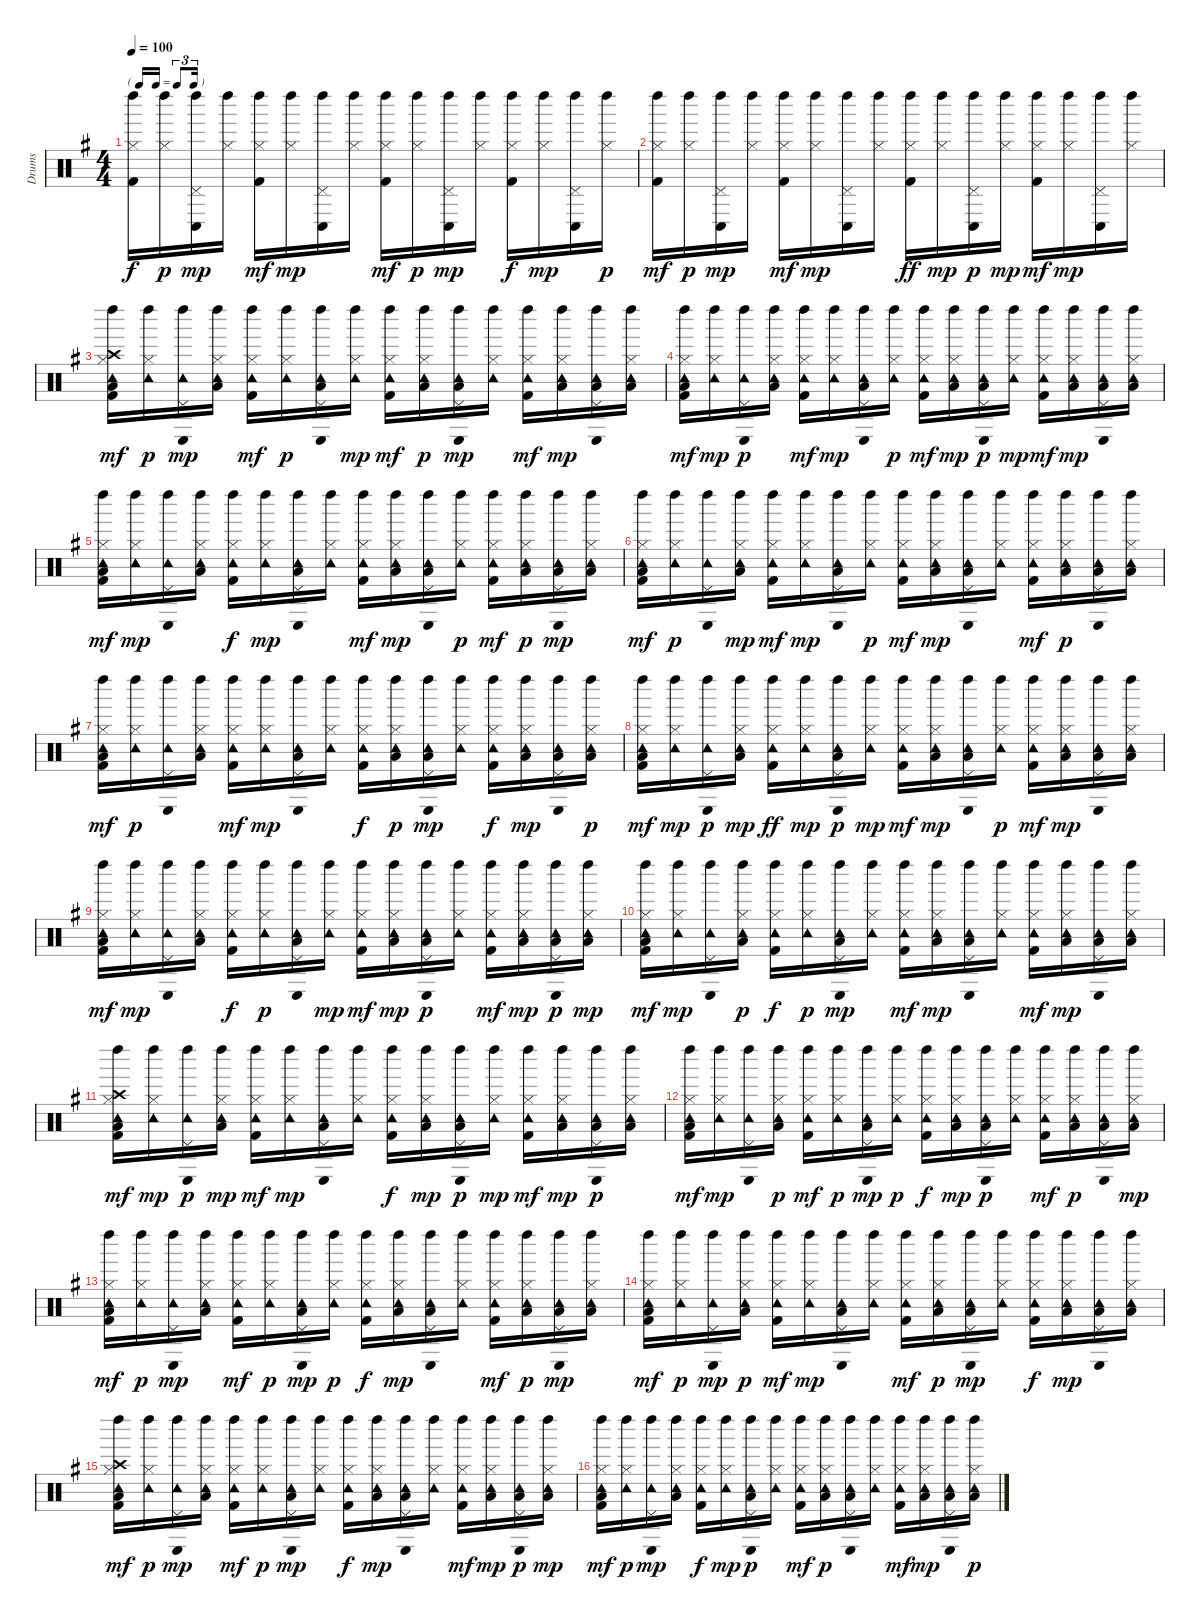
\track ("Drums" "Drums") {instrument percussion}
\staff {score}
\articulation defaults
\ts (4 4)
\tf triplet16th
\tempo 100
\clef neutral
\ks g
("Kick (hit) 2" "Hi-Hat (closed)" "Left Maraca (hit)").16{dy f} ("Hi-Hat (closed)" "Left Maraca (hit)").16{dy p} ("Pedal Hi-Hat (hit)" "Conga low (hit)" "Left Maraca (hit)").16{dy mp} ("Hi-Hat (closed)" "Left Maraca (hit)").16 ("Kick (hit) 2" "Hi-Hat (closed)" "Left Maraca (hit)").16{dy mf} ("Hi-Hat (closed)" "Left Maraca (hit)").16{dy mp} ("Pedal Hi-Hat (hit)" "Conga low (hit)" "Left Maraca (hit)").16 ("Hi-Hat (closed)" "Left Maraca (hit)").16 ("Kick (hit) 2" "Hi-Hat (closed)" "Left Maraca (hit)").16{dy mf} ("Hi-Hat (closed)" "Left Maraca (hit)").16{dy p} ("Pedal Hi-Hat (hit)" "Conga low (hit)" "Left Maraca (hit)").16{dy mp} ("Hi-Hat (closed)" "Left Maraca (hit)").16 ("Kick (hit) 2" "Hi-Hat (closed)" "Left Maraca (hit)").16{dy f} ("Hi-Hat (closed)" "Left Maraca (hit)").16{dy mp} ("Pedal Hi-Hat (hit)" "Conga low (hit)" "Left Maraca (hit)").16 ("Hi-Hat (closed)" "Left Maraca (hit)").16{dy p} |
("Kick (hit) 2" "Hi-Hat (closed)" "Left Maraca (hit)").16{dy mf} ("Hi-Hat (closed)" "Left Maraca (hit)").16{dy p} ("Pedal Hi-Hat (hit)" "Conga low (hit)" "Left Maraca (hit)").16{dy mp} ("Hi-Hat (closed)" "Left Maraca (hit)").16 ("Kick (hit) 2" "Hi-Hat (closed)" "Left Maraca (hit)").16{dy mf} ("Hi-Hat (closed)" "Left Maraca (hit)").16{dy mp} ("Pedal Hi-Hat (hit)" "Conga low (hit)" "Left Maraca (hit)").16 ("Hi-Hat (closed)" "Left Maraca (hit)").16 ("Kick (hit) 2" "Hi-Hat (closed)" "Left Maraca (hit)").16{dy ff} ("Hi-Hat (closed)" "Left Maraca (hit)").16{dy mp} ("Pedal Hi-Hat (hit)" "Conga low (hit)" "Left Maraca (hit)").16{dy p} ("Hi-Hat (closed)" "Left Maraca (hit)").16{dy mp} ("Kick (hit) 2" "Hi-Hat (closed)" "Left Maraca (hit)").16{dy mf} ("Hi-Hat (closed)" "Left Maraca (hit)").16{dy mp} ("Pedal Hi-Hat (hit)" "Conga low (hit)" "Left Maraca (hit)").16 ("Hi-Hat (closed)" "Left Maraca (hit)").16 |
("Kick (hit) 2" "Low Floor Tom (hit)" "Hi-Hat (closed)" "Crash high (hit)" "Tambourine (hit)" "Left Maraca (hit)").16{dy mf} ("Hi-Hat (closed)" "Tambourine (hit)" "Left Maraca (hit)").16{dy p} ("Pedal Hi-Hat (hit)" "Tambourine (hit)" "Conga low (hit)" "Left Maraca (hit)").16{dy mp} ("Low Floor Tom (hit)" "Hi-Hat (closed)" "Tambourine (hit)" "Left Maraca (hit)").16 ("Kick (hit) 2" "Hi-Hat (closed)" "Tambourine (hit)" "Left Maraca (hit)").16{dy mf} ("Hi-Hat (closed)" "Tambourine (hit)" "Left Maraca (hit)").16{dy p} ("Low Floor Tom (hit)" "Pedal Hi-Hat (hit)" "Tambourine (hit)" "Conga low (hit)" "Left Maraca (hit)").16 ("Hi-Hat (closed)" "Tambourine (hit)" "Left Maraca (hit)").16{dy mp} ("Kick (hit) 2" "Hi-Hat (closed)" "Tambourine (hit)" "Left Maraca (hit)").16{dy mf} ("Low Floor Tom (hit)" "Hi-Hat (closed)" "Tambourine (hit)" "Left Maraca (hit)").16{dy p} ("Low Floor Tom (hit)" "Pedal Hi-Hat (hit)" "Tambourine (hit)" "Conga low (hit)" "Left Maraca (hit)").16{dy mp} ("Hi-Hat (closed)" "Tambourine (hit)" "Left Maraca (hit)").16 ("Kick (hit) 2" "Hi-Hat (closed)" "Tambourine (hit)" "Left Maraca (hit)").16{dy mf} ("Low Floor Tom (hit)" "Hi-Hat (closed)" "Tambourine (hit)" "Left Maraca (hit)").16{dy mp} ("Low Floor Tom (hit)" "Pedal Hi-Hat (hit)" "Tambourine (hit)" "Conga low (hit)" "Left Maraca (hit)").16 ("Low Floor Tom (hit)" "Hi-Hat (closed)" "Tambourine (hit)" "Left Maraca (hit)").16 |
("Kick (hit) 2" "Low Floor Tom (hit)" "Hi-Hat (closed)" "Tambourine (hit)" "Left Maraca (hit)").16{dy mf} ("Hi-Hat (closed)" "Tambourine (hit)" "Left Maraca (hit)").16{dy mp} ("Pedal Hi-Hat (hit)" "Tambourine (hit)" "Conga low (hit)" "Left Maraca (hit)").16{dy p} ("Low Floor Tom (hit)" "Hi-Hat (closed)" "Tambourine (hit)" "Left Maraca (hit)").16 ("Kick (hit) 2" "Hi-Hat (closed)" "Tambourine (hit)" "Left Maraca (hit)").16{dy mf} ("Hi-Hat (closed)" "Tambourine (hit)" "Left Maraca (hit)").16{dy mp} ("Low Floor Tom (hit)" "Pedal Hi-Hat (hit)" "Tambourine (hit)" "Conga low (hit)" "Left Maraca (hit)").16 ("Hi-Hat (closed)" "Tambourine (hit)" "Left Maraca (hit)").16{dy p} ("Kick (hit) 2" "Hi-Hat (closed)" "Tambourine (hit)" "Left Maraca (hit)").16{dy mf} ("Low Floor Tom (hit)" "Hi-Hat (closed)" "Tambourine (hit)" "Left Maraca (hit)").16{dy mp} ("Low Floor Tom (hit)" "Pedal Hi-Hat (hit)" "Tambourine (hit)" "Conga low (hit)" "Left Maraca (hit)").16{dy p} ("Hi-Hat (closed)" "Tambourine (hit)" "Left Maraca (hit)").16{dy mp} ("Kick (hit) 2" "Hi-Hat (closed)" "Tambourine (hit)" "Left Maraca (hit)").16{dy mf} ("Low Floor Tom (hit)" "Hi-Hat (closed)" "Tambourine (hit)" "Left Maraca (hit)").16{dy mp} ("Low Floor Tom (hit)" "Pedal Hi-Hat (hit)" "Tambourine (hit)" "Conga low (hit)" "Left Maraca (hit)").16 ("Low Floor Tom (hit)" "Hi-Hat (closed)" "Tambourine (hit)" "Left Maraca (hit)").16 |
("Kick (hit) 2" "Low Floor Tom (hit)" "Hi-Hat (closed)" "Tambourine (hit)" "Left Maraca (hit)").16{dy mf} ("Hi-Hat (closed)" "Tambourine (hit)" "Left Maraca (hit)").16{dy mp} ("Pedal Hi-Hat (hit)" "Tambourine (hit)" "Conga low (hit)" "Left Maraca (hit)").16 ("Low Floor Tom (hit)" "Hi-Hat (closed)" "Tambourine (hit)" "Left Maraca (hit)").16 ("Kick (hit) 2" "Hi-Hat (closed)" "Tambourine (hit)" "Left Maraca (hit)").16{dy f} ("Hi-Hat (closed)" "Tambourine (hit)" "Left Maraca (hit)").16{dy mp} ("Low Floor Tom (hit)" "Pedal Hi-Hat (hit)" "Tambourine (hit)" "Conga low (hit)" "Left Maraca (hit)").16 ("Hi-Hat (closed)" "Tambourine (hit)" "Left Maraca (hit)").16 ("Kick (hit) 2" "Hi-Hat (closed)" "Tambourine (hit)" "Left Maraca (hit)").16{dy mf} ("Low Floor Tom (hit)" "Hi-Hat (closed)" "Tambourine (hit)" "Left Maraca (hit)").16{dy mp} ("Low Floor Tom (hit)" "Pedal Hi-Hat (hit)" "Tambourine (hit)" "Conga low (hit)" "Left Maraca (hit)").16 ("Hi-Hat (closed)" "Tambourine (hit)" "Left Maraca (hit)").16{dy p} ("Kick (hit) 2" "Hi-Hat (closed)" "Tambourine (hit)" "Left Maraca (hit)").16{dy mf} ("Low Floor Tom (hit)" "Hi-Hat (closed)" "Tambourine (hit)" "Left Maraca (hit)").16{dy p} ("Low Floor Tom (hit)" "Pedal Hi-Hat (hit)" "Tambourine (hit)" "Conga low (hit)" "Left Maraca (hit)").16{dy mp} ("Low Floor Tom (hit)" "Hi-Hat (closed)" "Tambourine (hit)" "Left Maraca (hit)").16 |
("Kick (hit) 2" "Low Floor Tom (hit)" "Hi-Hat (closed)" "Tambourine (hit)" "Left Maraca (hit)").16{dy mf} ("Hi-Hat (closed)" "Tambourine (hit)" "Left Maraca (hit)").16{dy p} ("Pedal Hi-Hat (hit)" "Tambourine (hit)" "Conga low (hit)" "Left Maraca (hit)").16 ("Low Floor Tom (hit)" "Hi-Hat (closed)" "Tambourine (hit)" "Left Maraca (hit)").16{dy mp} ("Kick (hit) 2" "Hi-Hat (closed)" "Tambourine (hit)" "Left Maraca (hit)").16{dy mf} ("Hi-Hat (closed)" "Tambourine (hit)" "Left Maraca (hit)").16{dy mp} ("Low Floor Tom (hit)" "Pedal Hi-Hat (hit)" "Tambourine (hit)" "Conga low (hit)" "Left Maraca (hit)").16 ("Hi-Hat (closed)" "Tambourine (hit)" "Left Maraca (hit)").16{dy p} ("Kick (hit) 2" "Hi-Hat (closed)" "Tambourine (hit)" "Left Maraca (hit)").16{dy mf} ("Low Floor Tom (hit)" "Hi-Hat (closed)" "Tambourine (hit)" "Left Maraca (hit)").16{dy mp} ("Low Floor Tom (hit)" "Pedal Hi-Hat (hit)" "Tambourine (hit)" "Conga low (hit)" "Left Maraca (hit)").16 ("Hi-Hat (closed)" "Tambourine (hit)" "Left Maraca (hit)").16 ("Kick (hit) 2" "Hi-Hat (closed)" "Tambourine (hit)" "Left Maraca (hit)").16{dy mf} ("Low Floor Tom (hit)" "Hi-Hat (closed)" "Tambourine (hit)" "Left Maraca (hit)").16{dy p} ("Low Floor Tom (hit)" "Pedal Hi-Hat (hit)" "Tambourine (hit)" "Conga low (hit)" "Left Maraca (hit)").16 ("Low Floor Tom (hit)" "Hi-Hat (closed)" "Tambourine (hit)" "Left Maraca (hit)").16 |
("Kick (hit) 2" "Low Floor Tom (hit)" "Hi-Hat (closed)" "Tambourine (hit)" "Left Maraca (hit)").16{dy mf} ("Hi-Hat (closed)" "Tambourine (hit)" "Left Maraca (hit)").16{dy p} ("Pedal Hi-Hat (hit)" "Tambourine (hit)" "Conga low (hit)" "Left Maraca (hit)").16 ("Low Floor Tom (hit)" "Hi-Hat (closed)" "Tambourine (hit)" "Left Maraca (hit)").16 ("Kick (hit) 2" "Hi-Hat (closed)" "Tambourine (hit)" "Left Maraca (hit)").16{dy mf} ("Hi-Hat (closed)" "Tambourine (hit)" "Left Maraca (hit)").16{dy mp} ("Low Floor Tom (hit)" "Pedal Hi-Hat (hit)" "Tambourine (hit)" "Conga low (hit)" "Left Maraca (hit)").16 ("Hi-Hat (closed)" "Tambourine (hit)" "Left Maraca (hit)").16 ("Kick (hit) 2" "Hi-Hat (closed)" "Tambourine (hit)" "Left Maraca (hit)").16{dy f} ("Low Floor Tom (hit)" "Hi-Hat (closed)" "Tambourine (hit)" "Left Maraca (hit)").16{dy p} ("Low Floor Tom (hit)" "Pedal Hi-Hat (hit)" "Tambourine (hit)" "Conga low (hit)" "Left Maraca (hit)").16{dy mp} ("Hi-Hat (closed)" "Tambourine (hit)" "Left Maraca (hit)").16 ("Kick (hit) 2" "Hi-Hat (closed)" "Tambourine (hit)" "Left Maraca (hit)").16{dy f} ("Low Floor Tom (hit)" "Hi-Hat (closed)" "Tambourine (hit)" "Left Maraca (hit)").16{dy mp} ("Low Floor Tom (hit)" "Pedal Hi-Hat (hit)" "Tambourine (hit)" "Conga low (hit)" "Left Maraca (hit)").16 ("Low Floor Tom (hit)" "Hi-Hat (closed)" "Tambourine (hit)" "Left Maraca (hit)").16{dy p} |
("Kick (hit) 2" "Low Floor Tom (hit)" "Hi-Hat (closed)" "Tambourine (hit)" "Left Maraca (hit)").16{dy mf} ("Hi-Hat (closed)" "Tambourine (hit)" "Left Maraca (hit)").16{dy mp} ("Pedal Hi-Hat (hit)" "Tambourine (hit)" "Conga low (hit)" "Left Maraca (hit)").16{dy p} ("Low Floor Tom (hit)" "Hi-Hat (closed)" "Tambourine (hit)" "Left Maraca (hit)").16{dy mp} ("Kick (hit) 2" "Hi-Hat (closed)" "Tambourine (hit)" "Left Maraca (hit)").16{dy ff} ("Hi-Hat (closed)" "Tambourine (hit)" "Left Maraca (hit)").16{dy mp} ("Low Floor Tom (hit)" "Pedal Hi-Hat (hit)" "Tambourine (hit)" "Conga low (hit)" "Left Maraca (hit)").16{dy p} ("Hi-Hat (closed)" "Tambourine (hit)" "Left Maraca (hit)").16{dy mp} ("Kick (hit) 2" "Hi-Hat (closed)" "Tambourine (hit)" "Left Maraca (hit)").16{dy mf} ("Low Floor Tom (hit)" "Hi-Hat (closed)" "Tambourine (hit)" "Left Maraca (hit)").16{dy mp} ("Low Floor Tom (hit)" "Pedal Hi-Hat (hit)" "Tambourine (hit)" "Conga low (hit)" "Left Maraca (hit)").16 ("Hi-Hat (closed)" "Tambourine (hit)" "Left Maraca (hit)").16{dy p} ("Kick (hit) 2" "Hi-Hat (closed)" "Tambourine (hit)" "Left Maraca (hit)").16{dy mf} ("Low Floor Tom (hit)" "Hi-Hat (closed)" "Tambourine (hit)" "Left Maraca (hit)").16{dy mp} ("Low Floor Tom (hit)" "Pedal Hi-Hat (hit)" "Tambourine (hit)" "Conga low (hit)" "Left Maraca (hit)").16 ("Low Floor Tom (hit)" "Hi-Hat (closed)" "Tambourine (hit)" "Left Maraca (hit)").16 |
("Kick (hit) 2" "Low Floor Tom (hit)" "Hi-Hat (closed)" "Tambourine (hit)" "Left Maraca (hit)").16{dy mf} ("Hi-Hat (closed)" "Tambourine (hit)" "Left Maraca (hit)").16{dy mp} ("Pedal Hi-Hat (hit)" "Tambourine (hit)" "Conga low (hit)" "Left Maraca (hit)").16 ("Low Floor Tom (hit)" "Hi-Hat (closed)" "Tambourine (hit)" "Left Maraca (hit)").16 ("Kick (hit) 2" "Hi-Hat (closed)" "Tambourine (hit)" "Left Maraca (hit)").16{dy f} ("Hi-Hat (closed)" "Tambourine (hit)" "Left Maraca (hit)").16{dy p} ("Low Floor Tom (hit)" "Pedal Hi-Hat (hit)" "Tambourine (hit)" "Conga low (hit)" "Left Maraca (hit)").16 ("Hi-Hat (closed)" "Tambourine (hit)" "Left Maraca (hit)").16{dy mp} ("Kick (hit) 2" "Hi-Hat (closed)" "Tambourine (hit)" "Left Maraca (hit)").16{dy mf} ("Low Floor Tom (hit)" "Hi-Hat (closed)" "Tambourine (hit)" "Left Maraca (hit)").16{dy mp} ("Low Floor Tom (hit)" "Pedal Hi-Hat (hit)" "Tambourine (hit)" "Conga low (hit)" "Left Maraca (hit)").16{dy p} ("Hi-Hat (closed)" "Tambourine (hit)" "Left Maraca (hit)").16 ("Kick (hit) 2" "Hi-Hat (closed)" "Tambourine (hit)" "Left Maraca (hit)").16{dy mf} ("Low Floor Tom (hit)" "Hi-Hat (closed)" "Tambourine (hit)" "Left Maraca (hit)").16{dy mp} ("Low Floor Tom (hit)" "Pedal Hi-Hat (hit)" "Tambourine (hit)" "Conga low (hit)" "Left Maraca (hit)").16{dy p} ("Low Floor Tom (hit)" "Hi-Hat (closed)" "Tambourine (hit)" "Left Maraca (hit)").16{dy mp} |
("Kick (hit) 2" "Low Floor Tom (hit)" "Hi-Hat (closed)" "Tambourine (hit)" "Left Maraca (hit)").16{dy mf} ("Hi-Hat (closed)" "Tambourine (hit)" "Left Maraca (hit)").16{dy mp} ("Pedal Hi-Hat (hit)" "Tambourine (hit)" "Conga low (hit)" "Left Maraca (hit)").16 ("Low Floor Tom (hit)" "Hi-Hat (closed)" "Tambourine (hit)" "Left Maraca (hit)").16{dy p} ("Kick (hit) 2" "Hi-Hat (closed)" "Tambourine (hit)" "Left Maraca (hit)").16{dy f} ("Hi-Hat (closed)" "Tambourine (hit)" "Left Maraca (hit)").16{dy p} ("Low Floor Tom (hit)" "Pedal Hi-Hat (hit)" "Tambourine (hit)" "Conga low (hit)" "Left Maraca (hit)").16{dy mp} ("Hi-Hat (closed)" "Tambourine (hit)" "Left Maraca (hit)").16 ("Kick (hit) 2" "Hi-Hat (closed)" "Tambourine (hit)" "Left Maraca (hit)").16{dy mf} ("Low Floor Tom (hit)" "Hi-Hat (closed)" "Tambourine (hit)" "Left Maraca (hit)").16{dy mp} ("Low Floor Tom (hit)" "Pedal Hi-Hat (hit)" "Tambourine (hit)" "Conga low (hit)" "Left Maraca (hit)").16 ("Hi-Hat (closed)" "Tambourine (hit)" "Left Maraca (hit)").16 ("Kick (hit) 2" "Hi-Hat (closed)" "Tambourine (hit)" "Left Maraca (hit)").16{dy mf} ("Low Floor Tom (hit)" "Hi-Hat (closed)" "Tambourine (hit)" "Left Maraca (hit)").16{dy mp} ("Low Floor Tom (hit)" "Pedal Hi-Hat (hit)" "Tambourine (hit)" "Conga low (hit)" "Left Maraca (hit)").16 ("Low Floor Tom (hit)" "Hi-Hat (closed)" "Tambourine (hit)" "Left Maraca (hit)").16 |
("Kick (hit) 2" "Low Floor Tom (hit)" "Hi-Hat (closed)" "Crash high (hit)" "Tambourine (hit)" "Left Maraca (hit)").16{dy mf} ("Hi-Hat (closed)" "Tambourine (hit)" "Left Maraca (hit)").16{dy mp} ("Pedal Hi-Hat (hit)" "Tambourine (hit)" "Conga low (hit)" "Left Maraca (hit)").16{dy p} ("Low Floor Tom (hit)" "Hi-Hat (closed)" "Tambourine (hit)" "Left Maraca (hit)").16{dy mp} ("Kick (hit) 2" "Hi-Hat (closed)" "Tambourine (hit)" "Left Maraca (hit)").16{dy mf} ("Hi-Hat (closed)" "Tambourine (hit)" "Left Maraca (hit)").16{dy mp} ("Low Floor Tom (hit)" "Pedal Hi-Hat (hit)" "Tambourine (hit)" "Conga low (hit)" "Left Maraca (hit)").16 ("Hi-Hat (closed)" "Tambourine (hit)" "Left Maraca (hit)").16 ("Kick (hit) 2" "Hi-Hat (closed)" "Tambourine (hit)" "Left Maraca (hit)").16{dy f} ("Low Floor Tom (hit)" "Hi-Hat (closed)" "Tambourine (hit)" "Left Maraca (hit)").16{dy mp} ("Low Floor Tom (hit)" "Pedal Hi-Hat (hit)" "Tambourine (hit)" "Conga low (hit)" "Left Maraca (hit)").16{dy p} ("Hi-Hat (closed)" "Tambourine (hit)" "Left Maraca (hit)").16{dy mp} ("Kick (hit) 2" "Hi-Hat (closed)" "Tambourine (hit)" "Left Maraca (hit)").16{dy mf} ("Low Floor Tom (hit)" "Hi-Hat (closed)" "Tambourine (hit)" "Left Maraca (hit)").16{dy mp} ("Low Floor Tom (hit)" "Pedal Hi-Hat (hit)" "Tambourine (hit)" "Conga low (hit)" "Left Maraca (hit)").16{dy p} ("Low Floor Tom (hit)" "Hi-Hat (closed)" "Tambourine (hit)" "Left Maraca (hit)").16 |
("Kick (hit) 2" "Low Floor Tom (hit)" "Hi-Hat (closed)" "Tambourine (hit)" "Left Maraca (hit)").16{dy mf} ("Hi-Hat (closed)" "Tambourine (hit)" "Left Maraca (hit)").16{dy mp} ("Pedal Hi-Hat (hit)" "Tambourine (hit)" "Conga low (hit)" "Left Maraca (hit)").16 ("Low Floor Tom (hit)" "Hi-Hat (closed)" "Tambourine (hit)" "Left Maraca (hit)").16{dy p} ("Kick (hit) 2" "Hi-Hat (closed)" "Tambourine (hit)" "Left Maraca (hit)").16{dy mf} ("Hi-Hat (closed)" "Tambourine (hit)" "Left Maraca (hit)").16{dy p} ("Low Floor Tom (hit)" "Pedal Hi-Hat (hit)" "Tambourine (hit)" "Conga low (hit)" "Left Maraca (hit)").16{dy mp} ("Hi-Hat (closed)" "Tambourine (hit)" "Left Maraca (hit)").16{dy p} ("Kick (hit) 2" "Hi-Hat (closed)" "Tambourine (hit)" "Left Maraca (hit)").16{dy f} ("Low Floor Tom (hit)" "Hi-Hat (closed)" "Tambourine (hit)" "Left Maraca (hit)").16{dy mp} ("Low Floor Tom (hit)" "Pedal Hi-Hat (hit)" "Tambourine (hit)" "Conga low (hit)" "Left Maraca (hit)").16{dy p} ("Hi-Hat (closed)" "Tambourine (hit)" "Left Maraca (hit)").16 ("Kick (hit) 2" "Hi-Hat (closed)" "Tambourine (hit)" "Left Maraca (hit)").16{dy mf} ("Low Floor Tom (hit)" "Hi-Hat (closed)" "Tambourine (hit)" "Left Maraca (hit)").16{dy p} ("Low Floor Tom (hit)" "Pedal Hi-Hat (hit)" "Tambourine (hit)" "Conga low (hit)" "Left Maraca (hit)").16 ("Low Floor Tom (hit)" "Hi-Hat (closed)" "Tambourine (hit)" "Left Maraca (hit)").16{dy mp} |
("Kick (hit) 2" "Low Floor Tom (hit)" "Hi-Hat (closed)" "Tambourine (hit)" "Left Maraca (hit)").16{dy mf} ("Hi-Hat (closed)" "Tambourine (hit)" "Left Maraca (hit)").16{dy p} ("Pedal Hi-Hat (hit)" "Tambourine (hit)" "Conga low (hit)" "Left Maraca (hit)").16{dy mp} ("Low Floor Tom (hit)" "Hi-Hat (closed)" "Tambourine (hit)" "Left Maraca (hit)").16 ("Kick (hit) 2" "Hi-Hat (closed)" "Tambourine (hit)" "Left Maraca (hit)").16{dy mf} ("Hi-Hat (closed)" "Tambourine (hit)" "Left Maraca (hit)").16{dy p} ("Low Floor Tom (hit)" "Pedal Hi-Hat (hit)" "Tambourine (hit)" "Conga low (hit)" "Left Maraca (hit)").16{dy mp} ("Hi-Hat (closed)" "Tambourine (hit)" "Left Maraca (hit)").16{dy p} ("Kick (hit) 2" "Hi-Hat (closed)" "Tambourine (hit)" "Left Maraca (hit)").16{dy f} ("Low Floor Tom (hit)" "Hi-Hat (closed)" "Tambourine (hit)" "Left Maraca (hit)").16{dy mp} ("Low Floor Tom (hit)" "Pedal Hi-Hat (hit)" "Tambourine (hit)" "Conga low (hit)" "Left Maraca (hit)").16 ("Hi-Hat (closed)" "Tambourine (hit)" "Left Maraca (hit)").16 ("Kick (hit) 2" "Hi-Hat (closed)" "Tambourine (hit)" "Left Maraca (hit)").16{dy mf} ("Low Floor Tom (hit)" "Hi-Hat (closed)" "Tambourine (hit)" "Left Maraca (hit)").16{dy p} ("Low Floor Tom (hit)" "Pedal Hi-Hat (hit)" "Tambourine (hit)" "Conga low (hit)" "Left Maraca (hit)").16{dy mp} ("Low Floor Tom (hit)" "Hi-Hat (closed)" "Tambourine (hit)" "Left Maraca (hit)").16 |
("Kick (hit) 2" "Low Floor Tom (hit)" "Hi-Hat (closed)" "Tambourine (hit)" "Left Maraca (hit)").16{dy mf} ("Hi-Hat (closed)" "Tambourine (hit)" "Left Maraca (hit)").16{dy p} ("Pedal Hi-Hat (hit)" "Tambourine (hit)" "Conga low (hit)" "Left Maraca (hit)").16{dy mp} ("Low Floor Tom (hit)" "Hi-Hat (closed)" "Tambourine (hit)" "Left Maraca (hit)").16{dy p} ("Kick (hit) 2" "Hi-Hat (closed)" "Tambourine (hit)" "Left Maraca (hit)").16{dy mf} ("Hi-Hat (closed)" "Tambourine (hit)" "Left Maraca (hit)").16{dy mp} ("Low Floor Tom (hit)" "Pedal Hi-Hat (hit)" "Tambourine (hit)" "Conga low (hit)" "Left Maraca (hit)").16 ("Hi-Hat (closed)" "Tambourine (hit)" "Left Maraca (hit)").16 ("Kick (hit) 2" "Hi-Hat (closed)" "Tambourine (hit)" "Left Maraca (hit)").16{dy mf} ("Low Floor Tom (hit)" "Hi-Hat (closed)" "Tambourine (hit)" "Left Maraca (hit)").16{dy p} ("Low Floor Tom (hit)" "Pedal Hi-Hat (hit)" "Tambourine (hit)" "Conga low (hit)" "Left Maraca (hit)").16{dy mp} ("Hi-Hat (closed)" "Tambourine (hit)" "Left Maraca (hit)").16 ("Kick (hit) 2" "Hi-Hat (closed)" "Tambourine (hit)" "Left Maraca (hit)").16{dy f} ("Low Floor Tom (hit)" "Hi-Hat (closed)" "Tambourine (hit)" "Left Maraca (hit)").16{dy mp} ("Low Floor Tom (hit)" "Pedal Hi-Hat (hit)" "Tambourine (hit)" "Conga low (hit)" "Left Maraca (hit)").16 ("Low Floor Tom (hit)" "Hi-Hat (closed)" "Tambourine (hit)" "Left Maraca (hit)").16 |
("Kick (hit) 2" "Low Floor Tom (hit)" "Hi-Hat (closed)" "Crash high (hit)" "Tambourine (hit)" "Left Maraca (hit)").16{dy mf} ("Hi-Hat (closed)" "Tambourine (hit)" "Left Maraca (hit)").16{dy p} ("Pedal Hi-Hat (hit)" "Tambourine (hit)" "Conga low (hit)" "Left Maraca (hit)").16{dy mp} ("Low Floor Tom (hit)" "Hi-Hat (closed)" "Tambourine (hit)" "Left Maraca (hit)").16 ("Kick (hit) 2" "Hi-Hat (closed)" "Tambourine (hit)" "Left Maraca (hit)").16{dy mf} ("Hi-Hat (closed)" "Tambourine (hit)" "Left Maraca (hit)").16{dy p} ("Low Floor Tom (hit)" "Pedal Hi-Hat (hit)" "Tambourine (hit)" "Conga low (hit)" "Left Maraca (hit)").16{dy mp} ("Hi-Hat (closed)" "Tambourine (hit)" "Left Maraca (hit)").16 ("Kick (hit) 2" "Hi-Hat (closed)" "Tambourine (hit)" "Left Maraca (hit)").16{dy f} ("Low Floor Tom (hit)" "Hi-Hat (closed)" "Tambourine (hit)" "Left Maraca (hit)").16{dy mp} ("Low Floor Tom (hit)" "Pedal Hi-Hat (hit)" "Tambourine (hit)" "Conga low (hit)" "Left Maraca (hit)").16 ("Hi-Hat (closed)" "Tambourine (hit)" "Left Maraca (hit)").16 ("Kick (hit) 2" "Hi-Hat (closed)" "Tambourine (hit)" "Left Maraca (hit)").16{dy mf} ("Low Floor Tom (hit)" "Hi-Hat (closed)" "Tambourine (hit)" "Left Maraca (hit)").16{dy mp} ("Low Floor Tom (hit)" "Pedal Hi-Hat (hit)" "Tambourine (hit)" "Conga low (hit)" "Left Maraca (hit)").16{dy p} ("Low Floor Tom (hit)" "Hi-Hat (closed)" "Tambourine (hit)" "Left Maraca (hit)").16{dy mp} |
("Kick (hit) 2" "Low Floor Tom (hit)" "Hi-Hat (closed)" "Tambourine (hit)" "Left Maraca (hit)").16{dy mf} ("Hi-Hat (closed)" "Tambourine (hit)" "Left Maraca (hit)").16{dy p} ("Pedal Hi-Hat (hit)" "Tambourine (hit)" "Conga low (hit)" "Left Maraca (hit)").16{dy mp} ("Low Floor Tom (hit)" "Hi-Hat (closed)" "Tambourine (hit)" "Left Maraca (hit)").16 ("Kick (hit) 2" "Hi-Hat (closed)" "Tambourine (hit)" "Left Maraca (hit)").16{dy f} ("Hi-Hat (closed)" "Tambourine (hit)" "Left Maraca (hit)").16{dy mp} ("Low Floor Tom (hit)" "Pedal Hi-Hat (hit)" "Tambourine (hit)" "Conga low (hit)" "Left Maraca (hit)").16{dy p} ("Hi-Hat (closed)" "Tambourine (hit)" "Left Maraca (hit)").16 ("Kick (hit) 2" "Hi-Hat (closed)" "Tambourine (hit)" "Left Maraca (hit)").16{dy mf} ("Low Floor Tom (hit)" "Hi-Hat (closed)" "Tambourine (hit)" "Left Maraca (hit)").16{dy p} ("Low Floor Tom (hit)" "Pedal Hi-Hat (hit)" "Tambourine (hit)" "Conga low (hit)" "Left Maraca (hit)").16 ("Hi-Hat (closed)" "Tambourine (hit)" "Left Maraca (hit)").16 ("Kick (hit) 2" "Hi-Hat (closed)" "Tambourine (hit)" "Left Maraca (hit)").16{dy mf} ("Low Floor Tom (hit)" "Hi-Hat (closed)" "Tambourine (hit)" "Left Maraca (hit)").16{dy mp} ("Low Floor Tom (hit)" "Pedal Hi-Hat (hit)" "Tambourine (hit)" "Conga low (hit)" "Left Maraca (hit)").16 ("Low Floor Tom (hit)" "Hi-Hat (closed)" "Tambourine (hit)" "Left Maraca (hit)").16{dy p}
